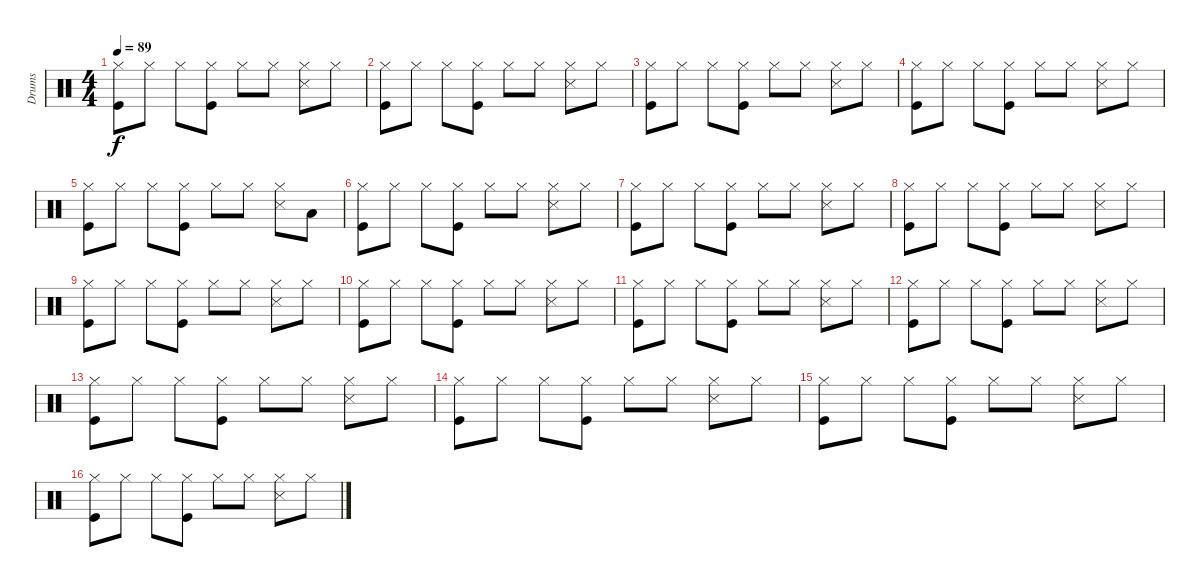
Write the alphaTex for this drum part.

\track ("Drums" "Drums") {instrument percussion}
\staff {score}
\articulation defaults
\ts (4 4)
\tempo 89
\clef neutral
\ks c
("Hi-Hat (closed)" "Kick (hit)").8{dy f} "Hi-Hat (closed)".8 "Hi-Hat (closed)".8 ("Hi-Hat (closed)" "Kick (hit)").8 "Hi-Hat (closed)".8 "Hi-Hat (closed)".8 ("Hi-Hat (closed)" "Snare (side stick) 3").8 "Hi-Hat (closed)".8 |
("Hi-Hat (closed)" "Kick (hit)").8 "Hi-Hat (closed)".8 "Hi-Hat (closed)".8 ("Hi-Hat (closed)" "Kick (hit)").8 "Hi-Hat (closed)".8 "Hi-Hat (closed)".8 ("Hi-Hat (closed)" "Snare (side stick) 3").8 "Hi-Hat (closed)".8 |
("Hi-Hat (closed)" "Kick (hit)").8 "Hi-Hat (closed)".8 "Hi-Hat (closed)".8 ("Hi-Hat (closed)" "Kick (hit)").8 "Hi-Hat (closed)".8 "Hi-Hat (closed)".8 ("Hi-Hat (closed)" "Snare (side stick) 3").8 "Hi-Hat (closed)".8 |
("Hi-Hat (closed)" "Kick (hit)").8 "Hi-Hat (closed)".8 "Hi-Hat (closed)".8 ("Hi-Hat (closed)" "Kick (hit)").8 "Hi-Hat (closed)".8 "Hi-Hat (closed)".8 ("Hi-Hat (closed)" "Snare (side stick) 3").8 "Hi-Hat (closed)".8 |
("Hi-Hat (closed)" "Kick (hit)").8 "Hi-Hat (closed)".8 "Hi-Hat (closed)".8 ("Hi-Hat (closed)" "Kick (hit)").8 "Hi-Hat (closed)".8 "Hi-Hat (closed)".8 ("Hi-Hat (closed)" "Snare (side stick) 3").8 "Low Tom (hit)".8 |
("Hi-Hat (closed)" "Kick (hit)").8 "Hi-Hat (closed)".8 "Hi-Hat (closed)".8 ("Hi-Hat (closed)" "Kick (hit)").8 "Hi-Hat (closed)".8 "Hi-Hat (closed)".8 ("Hi-Hat (closed)" "Snare (side stick) 3").8 "Hi-Hat (closed)".8 |
("Hi-Hat (closed)" "Kick (hit)").8 "Hi-Hat (closed)".8 "Hi-Hat (closed)".8 ("Hi-Hat (closed)" "Kick (hit)").8 "Hi-Hat (closed)".8 "Hi-Hat (closed)".8 ("Hi-Hat (closed)" "Snare (side stick) 3").8 "Hi-Hat (closed)".8 |
("Hi-Hat (closed)" "Kick (hit)").8 "Hi-Hat (closed)".8 "Hi-Hat (closed)".8 ("Hi-Hat (closed)" "Kick (hit)").8 "Hi-Hat (closed)".8 "Hi-Hat (closed)".8 ("Hi-Hat (closed)" "Snare (side stick) 3").8 "Hi-Hat (closed)".8 |
("Hi-Hat (closed)" "Kick (hit)").8 "Hi-Hat (closed)".8 "Hi-Hat (closed)".8 ("Hi-Hat (closed)" "Kick (hit)").8 "Hi-Hat (closed)".8 "Hi-Hat (closed)".8 ("Hi-Hat (closed)" "Snare (side stick) 3").8 "Hi-Hat (closed)".8 |
("Hi-Hat (closed)" "Kick (hit)").8 "Hi-Hat (closed)".8 "Hi-Hat (closed)".8 ("Hi-Hat (closed)" "Kick (hit)").8 "Hi-Hat (closed)".8 "Hi-Hat (closed)".8 ("Hi-Hat (closed)" "Snare (side stick) 3").8 "Hi-Hat (closed)".8 |
("Hi-Hat (closed)" "Kick (hit)").8 "Hi-Hat (closed)".8 "Hi-Hat (closed)".8 ("Hi-Hat (closed)" "Kick (hit)").8 "Hi-Hat (closed)".8 "Hi-Hat (closed)".8 ("Hi-Hat (closed)" "Snare (side stick) 3").8 "Hi-Hat (closed)".8 |
("Hi-Hat (closed)" "Kick (hit)").8 "Hi-Hat (closed)".8 "Hi-Hat (closed)".8 ("Hi-Hat (closed)" "Kick (hit)").8 "Hi-Hat (closed)".8 "Hi-Hat (closed)".8 ("Hi-Hat (closed)" "Snare (side stick) 3").8 "Hi-Hat (closed)".8 |
("Hi-Hat (closed)" "Kick (hit)").8 "Hi-Hat (closed)".8 "Hi-Hat (closed)".8 ("Hi-Hat (closed)" "Kick (hit)").8 "Hi-Hat (closed)".8 "Hi-Hat (closed)".8 ("Hi-Hat (closed)" "Snare (side stick) 3").8 "Hi-Hat (closed)".8 |
("Hi-Hat (closed)" "Kick (hit)").8 "Hi-Hat (closed)".8 "Hi-Hat (closed)".8 ("Hi-Hat (closed)" "Kick (hit)").8 "Hi-Hat (closed)".8 "Hi-Hat (closed)".8 ("Hi-Hat (closed)" "Snare (side stick) 3").8 "Hi-Hat (closed)".8 |
("Hi-Hat (closed)" "Kick (hit)").8 "Hi-Hat (closed)".8 "Hi-Hat (closed)".8 ("Hi-Hat (closed)" "Kick (hit)").8 "Hi-Hat (closed)".8 "Hi-Hat (closed)".8 ("Hi-Hat (closed)" "Snare (side stick) 3").8 "Hi-Hat (closed)".8 |
("Hi-Hat (closed)" "Kick (hit)").8 "Hi-Hat (closed)".8 "Hi-Hat (closed)".8 ("Hi-Hat (closed)" "Kick (hit)").8 "Hi-Hat (closed)".8 "Hi-Hat (closed)".8 ("Hi-Hat (closed)" "Snare (side stick) 3").8 "Hi-Hat (closed)".8
